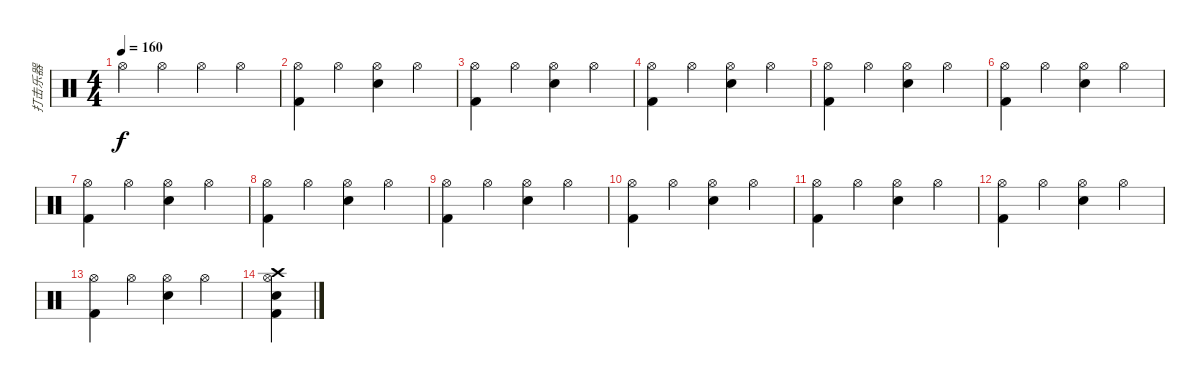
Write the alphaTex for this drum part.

\track ("打击乐器" "打击乐器") {instrument percussion}
\staff {score}
\articulation defaults
\ts (4 4)
\tempo 160
\clef neutral
\ks c "Hi-Hat (open)".4{dy f} "Hi-Hat (open)".4 "Hi-Hat (open)".4 "Hi-Hat (open)".4
|
("Hi-Hat (open)" "Kick (hit) 2").4 "Hi-Hat (open)".4 ("Hi-Hat (open)" "Snare (hit) 2").4 "Hi-Hat (open)".4 |
("Hi-Hat (open)" "Kick (hit) 2").4 "Hi-Hat (open)".4 ("Hi-Hat (open)" "Snare (hit) 2").4 "Hi-Hat (open)".4 |
("Hi-Hat (open)" "Kick (hit) 2").4 "Hi-Hat (open)".4 ("Hi-Hat (open)" "Snare (hit) 2").4 "Hi-Hat (open)".4 |
("Hi-Hat (open)" "Kick (hit) 2").4 "Hi-Hat (open)".4 ("Hi-Hat (open)" "Snare (hit) 2").4 "Hi-Hat (open)".4 |
("Hi-Hat (open)" "Kick (hit) 2").4 "Hi-Hat (open)".4 ("Hi-Hat (open)" "Snare (hit) 2").4 "Hi-Hat (open)".4 |
("Hi-Hat (open)" "Kick (hit) 2").4 "Hi-Hat (open)".4 ("Hi-Hat (open)" "Snare (hit) 2").4 "Hi-Hat (open)".4 |
("Hi-Hat (open)" "Kick (hit) 2").4 "Hi-Hat (open)".4 ("Hi-Hat (open)" "Snare (hit) 2").4 "Hi-Hat (open)".4 |
("Hi-Hat (open)" "Kick (hit) 2").4 "Hi-Hat (open)".4 ("Hi-Hat (open)" "Snare (hit) 2").4 "Hi-Hat (open)".4 |
("Hi-Hat (open)" "Kick (hit) 2").4 "Hi-Hat (open)".4 ("Hi-Hat (open)" "Snare (hit) 2").4 "Hi-Hat (open)".4 |
("Hi-Hat (open)" "Kick (hit) 2").4 "Hi-Hat (open)".4 ("Hi-Hat (open)" "Snare (hit) 2").4 "Hi-Hat (open)".4 |
("Hi-Hat (open)" "Kick (hit) 2").4 "Hi-Hat (open)".4 ("Hi-Hat (open)" "Snare (hit) 2").4 "Hi-Hat (open)".4 |
("Hi-Hat (open)" "Kick (hit) 2").4 "Hi-Hat (open)".4 ("Hi-Hat (open)" "Snare (hit) 2").4 "Hi-Hat (open)".4 |
("Kick (hit) 2" "Hi-Hat (open)" "Crash high (hit)" "Snare (hit) 2").4
